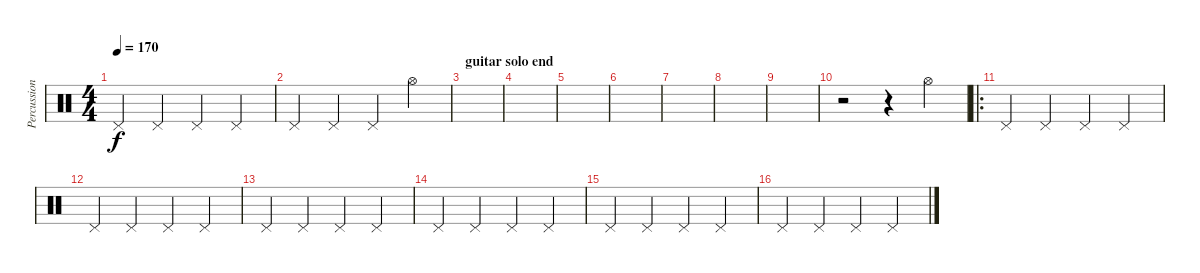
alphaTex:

\track ("Percussion" "Percussion") {instrument percussion}
\staff {score}
\articulation defaults
\ts (4 4)
\tempo 170
\clef neutral
\ks c "Pedal Hi-Hat (hit)".4{dy f} "Pedal Hi-Hat (hit)".4 "Pedal Hi-Hat (hit)".4 "Pedal Hi-Hat (hit)".4
|
"Pedal Hi-Hat (hit)".4 "Pedal Hi-Hat (hit)".4 "Pedal Hi-Hat (hit)".4 "Hi-Hat (open)".4 |
\section ("" "guitar solo end")
|
|
|
|
|
|
|
r.2 r.4 "Hi-Hat (open)".4 |
\ro "Pedal Hi-Hat (hit)".4 "Pedal Hi-Hat (hit)".4 "Pedal Hi-Hat (hit)".4 "Pedal Hi-Hat (hit)".4
|
"Pedal Hi-Hat (hit)".4 "Pedal Hi-Hat (hit)".4 "Pedal Hi-Hat (hit)".4 "Pedal Hi-Hat (hit)".4 |
"Pedal Hi-Hat (hit)".4 "Pedal Hi-Hat (hit)".4 "Pedal Hi-Hat (hit)".4 "Pedal Hi-Hat (hit)".4 |
"Pedal Hi-Hat (hit)".4 "Pedal Hi-Hat (hit)".4 "Pedal Hi-Hat (hit)".4 "Pedal Hi-Hat (hit)".4 |
"Pedal Hi-Hat (hit)".4 "Pedal Hi-Hat (hit)".4 "Pedal Hi-Hat (hit)".4 "Pedal Hi-Hat (hit)".4 |
"Pedal Hi-Hat (hit)".4 "Pedal Hi-Hat (hit)".4 "Pedal Hi-Hat (hit)".4 "Pedal Hi-Hat (hit)".4
